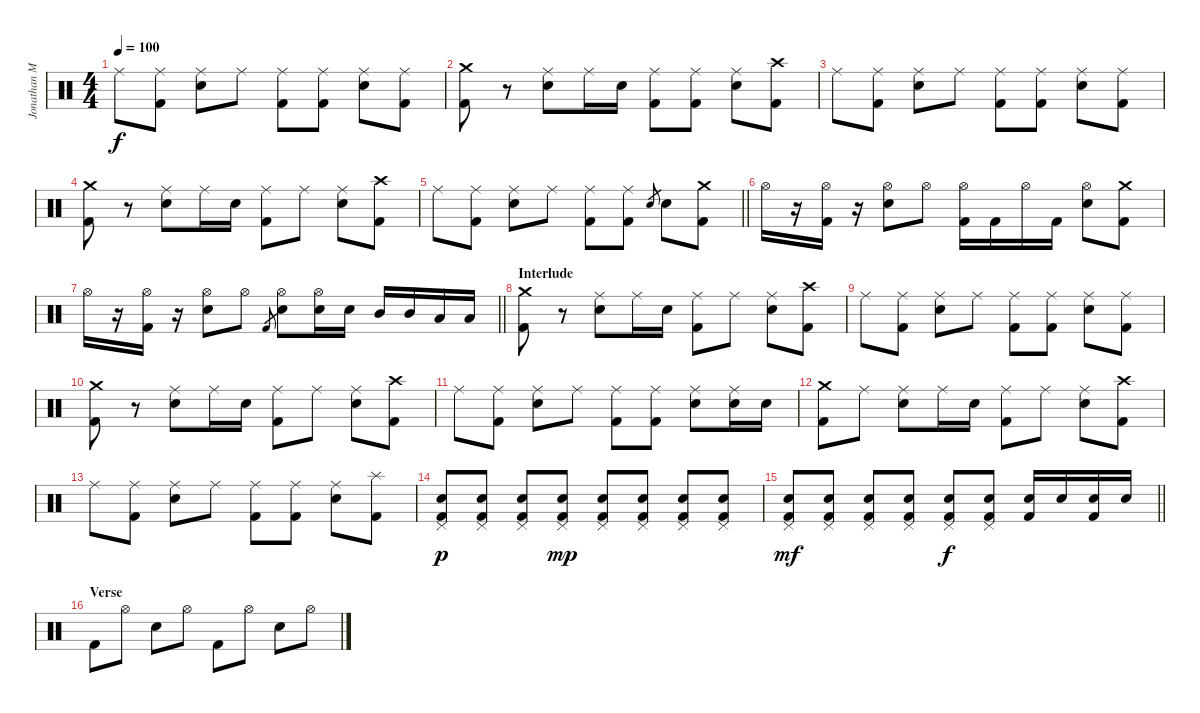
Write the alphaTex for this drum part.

\track ("Jonathan Mover (Studio Drummer)" "Jonathan M") {instrument percussion}
\staff {score}
\articulation defaults
\ts (4 4)
\tempo 100
\clef neutral
\ks c "Ride (middle)".8{dy f}
("Ride (middle)" "Kick (hit) 2").8 ("Ride (middle)" "Snare (hit) 2").8 "Ride (middle)".8 ("Ride (middle)" "Kick (hit) 2").8 ("Ride (middle)" "Kick (hit) 2").8 ("Ride (middle)" "Snare (hit) 2").8 ("Ride (middle)" "Kick (hit) 2").8 |
("Crash medium (hit)" "Kick (hit) 2").8 r.8 ("Ride (middle)" "Snare (hit) 2").8 "Ride (middle)".16 "Snare (hit) 2".16 ("Ride (middle)" "Kick (hit) 2").8 ("Ride (middle)" "Kick (hit) 2").8 ("Ride (middle)" "Snare (hit) 2").8 ("Crash high (hit)" "Kick (hit) 2").8 |
"Ride (middle)".8 ("Ride (middle)" "Kick (hit) 2").8 ("Ride (middle)" "Snare (hit) 2").8 "Ride (middle)".8 ("Ride (middle)" "Kick (hit) 2").8 ("Ride (middle)" "Kick (hit) 2").8 ("Ride (middle)" "Snare (hit) 2").8 ("Ride (middle)" "Kick (hit) 2").8 |
("Crash medium (hit)" "Kick (hit) 2").8 r.8 ("Ride (middle)" "Snare (hit) 2").8 "Ride (middle)".16 "Snare (hit) 2".16 ("Ride (middle)" "Kick (hit) 2").8 "Ride (middle)".8 ("Ride (middle)" "Snare (hit) 2").8 ("Crash high (hit)" "Kick (hit) 2").8 |
\barLineRight lightlight "Ride (middle)".8
("Ride (middle)" "Kick (hit) 2").8 ("Ride (middle)" "Snare (hit) 2").8 "Ride (middle)".8 ("Ride (middle)" "Kick (hit) 2").8 ("Ride (middle)" "Kick (hit) 2").8 "Snare (hit) 2".8{gr} "Snare (hit) 2".8 ("Crash medium (hit)" "Kick (hit) 2").8 |
"Hi-Hat (open)".16 r.16 ("Hi-Hat (open)" "Kick (hit) 2").16 r.16 ("Hi-Hat (open)" "Snare (hit) 2").8 "Hi-Hat (open)".8 ("Hi-Hat (open)" "Kick (hit) 2").16 "Kick (hit) 2".16 "Hi-Hat (open)".16 "Kick (hit) 2".16 ("Hi-Hat (open)" "Snare (hit) 2").8 ("Crash medium (hit)" "Kick (hit) 2").8 |
\barLineRight lightlight "Hi-Hat (open)".16
r.16 ("Hi-Hat (open)" "Kick (hit) 2").16 r.16 ("Hi-Hat (open)" "Snare (hit) 2").8 "Hi-Hat (open)".8 "Kick (hit) 2".8{gr} ("Hi-Hat (open)" "Snare (hit) 2").8 ("Hi-Hat (open)" "Snare (hit) 2").16 "Snare (hit) 2".16 "Mid Tom (hit)".16 "Mid Tom (hit)".16 "Low Tom (hit)".16 "Low Tom (hit)".16 |
\section ("" "Interlude")
("Crash medium (hit)" "Kick (hit) 2").8 r.8 ("Ride (middle)" "Snare (hit) 2").8 "Ride (middle)".16 "Snare (hit) 2".16 ("Ride (middle)" "Kick (hit) 2").8 "Ride (middle)".8 ("Ride (middle)" "Snare (hit) 2").8 ("Crash high (hit)" "Kick (hit) 2").8 |
"Ride (middle)".8 ("Ride (middle)" "Kick (hit) 2").8 ("Ride (middle)" "Snare (hit) 2").8 "Ride (middle)".8 ("Ride (middle)" "Kick (hit) 2").8 ("Ride (middle)" "Kick (hit) 2").8 ("Ride (middle)" "Snare (hit) 2").8 ("Ride (middle)" "Kick (hit) 2").8 |
("Crash medium (hit)" "Kick (hit) 2").8 r.8 ("Ride (middle)" "Snare (hit) 2").8 "Ride (middle)".16 "Snare (hit) 2".16 ("Ride (middle)" "Kick (hit) 2").8 "Ride (middle)".8 ("Ride (middle)" "Snare (hit) 2").8 ("Crash high (hit)" "Kick (hit) 2").8 |
"Ride (middle)".8 ("Ride (middle)" "Kick (hit) 2").8 ("Ride (middle)" "Snare (hit) 2").8 "Ride (middle)".8 ("Ride (middle)" "Kick (hit) 2").8 ("Ride (middle)" "Kick (hit) 2").8 ("Ride (middle)" "Snare (hit) 2").8 ("Ride (middle)" "Snare (hit) 2").16 "Snare (hit) 2".16 |
("Crash medium (hit)" "Kick (hit) 2").8 "Ride (middle)".8 ("Ride (middle)" "Snare (hit) 2").8 "Ride (middle)".16 "Snare (hit) 2".16 ("Ride (middle)" "Kick (hit) 2").8 "Ride (middle)".8 ("Ride (middle)" "Snare (hit) 2").8 ("Crash high (hit)" "Kick (hit) 2").8 |
"Ride (middle)".8 ("Ride (middle)" "Kick (hit) 2").8 ("Ride (middle)" "Snare (hit) 2").8 "Ride (middle)".8 ("Ride (middle)" "Kick (hit) 2").8 ("Ride (middle)" "Kick (hit) 2").8 ("Ride (middle)" "Snare (hit) 2").8 ("Splash (hit)" "Kick (hit) 2").8 |
("Pedal Hi-Hat (hit)" "Snare (hit) 2" "Kick (hit) 2").8{dy p} ("Pedal Hi-Hat (hit)" "Snare (hit) 2" "Kick (hit) 2").8 ("Pedal Hi-Hat (hit)" "Snare (hit) 2" "Kick (hit) 2").8 ("Pedal Hi-Hat (hit)" "Snare (hit) 2" "Kick (hit) 2").8{dy mp} ("Pedal Hi-Hat (hit)" "Snare (hit) 2" "Kick (hit) 2").8 ("Pedal Hi-Hat (hit)" "Snare (hit) 2" "Kick (hit) 2").8 ("Pedal Hi-Hat (hit)" "Snare (hit) 2" "Kick (hit) 2").8 ("Pedal Hi-Hat (hit)" "Snare (hit) 2" "Kick (hit) 2").8 |
\barLineRight lightlight
("Pedal Hi-Hat (hit)" "Snare (hit) 2" "Kick (hit) 2").8{dy mf} ("Pedal Hi-Hat (hit)" "Snare (hit) 2" "Kick (hit) 2").8 ("Pedal Hi-Hat (hit)" "Snare (hit) 2" "Kick (hit) 2").8 ("Pedal Hi-Hat (hit)" "Snare (hit) 2" "Kick (hit) 2").8 ("Pedal Hi-Hat (hit)" "Snare (hit) 2" "Kick (hit) 2").8{dy f} ("Pedal Hi-Hat (hit)" "Snare (hit) 2" "Kick (hit) 2").8 ("Snare (hit) 2" "Kick (hit) 2").16 "Snare (hit) 2".16 ("Snare (hit) 2" "Kick (hit) 2").16 "Snare (hit) 2".16 |
\section ("" "Verse")
"Kick (hit) 2".8 "Hi-Hat (open)".8 "Snare (hit) 2".8 "Hi-Hat (open)".8 "Kick (hit) 2".8 "Hi-Hat (open)".8 "Snare (hit) 2".8 "Hi-Hat (open)".8
